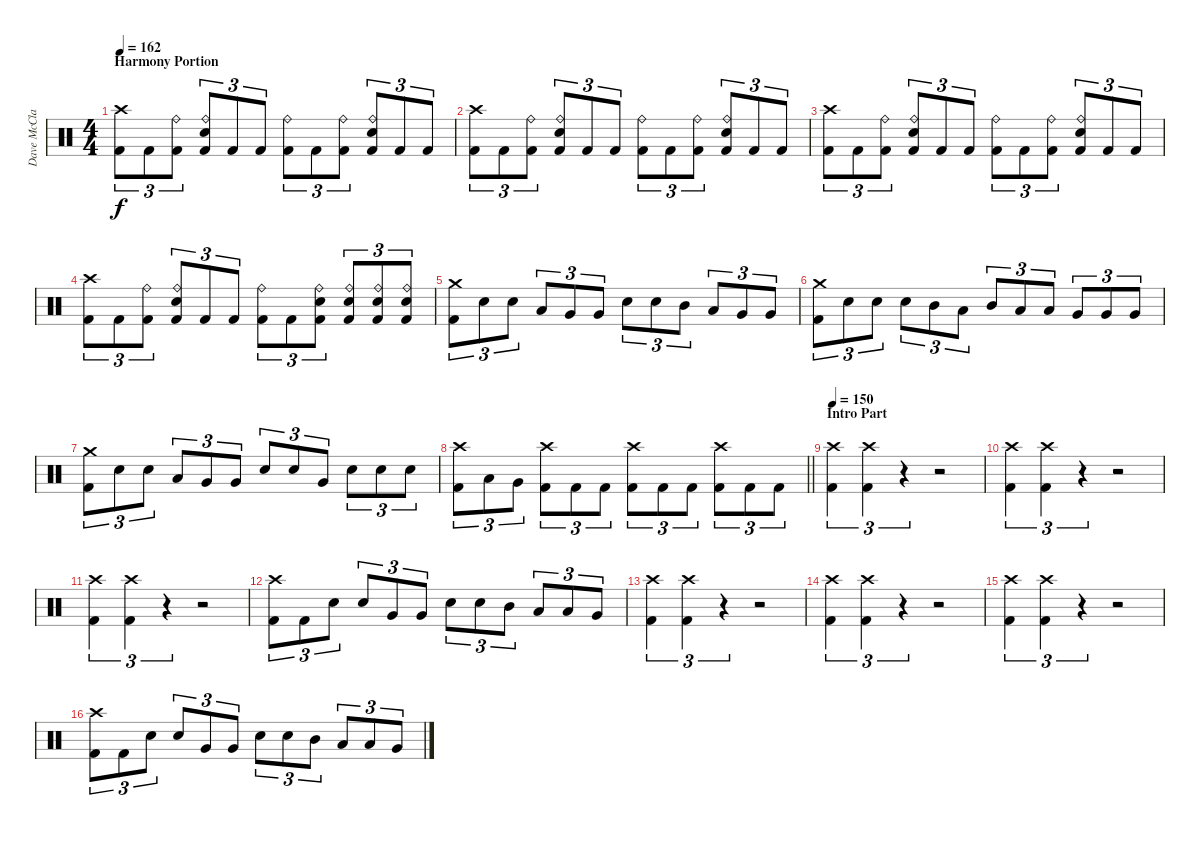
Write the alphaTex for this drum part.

\track ("Dave McClain" "Dave McCla") {instrument percussion}
\staff {score}
\articulation defaults
\ts (4 4)
\section ("" "Harmony Portion")
\tempo 162
\clef neutral
\ks c
("Crash high (hit)" "Kick (hit) 2").8{tu (3 2) dy f} "Kick (hit) 2".8{tu (3 2)} ("Ride (bell)" "Kick (hit) 2").8{tu (3 2)} ("Ride (bell)" "Snare (hit) 2" "Kick (hit) 2").8{tu (3 2)} "Kick (hit) 2".8{tu (3 2)} "Kick (hit) 2".8{tu (3 2)} ("Ride (bell)" "Kick (hit) 2").8{tu (3 2)} "Kick (hit) 2".8{tu (3 2)} ("Ride (bell)" "Kick (hit) 2").8{tu (3 2)} ("Ride (bell)" "Snare (hit) 2" "Kick (hit) 2").8{tu (3 2)} "Kick (hit) 2".8{tu (3 2)} "Kick (hit) 2".8{tu (3 2)} |
("Crash high (hit)" "Kick (hit) 2").8{tu (3 2)} "Kick (hit) 2".8{tu (3 2)} ("Ride (bell)" "Kick (hit) 2").8{tu (3 2)} ("Ride (bell)" "Snare (hit) 2" "Kick (hit) 2").8{tu (3 2)} "Kick (hit) 2".8{tu (3 2)} "Kick (hit) 2".8{tu (3 2)} ("Ride (bell)" "Kick (hit) 2").8{tu (3 2)} "Kick (hit) 2".8{tu (3 2)} ("Ride (bell)" "Kick (hit) 2").8{tu (3 2)} ("Ride (bell)" "Snare (hit) 2" "Kick (hit) 2").8{tu (3 2)} "Kick (hit) 2".8{tu (3 2)} "Kick (hit) 2".8{tu (3 2)} |
("Crash high (hit)" "Kick (hit) 2").8{tu (3 2)} "Kick (hit) 2".8{tu (3 2)} ("Ride (bell)" "Kick (hit) 2").8{tu (3 2)} ("Ride (bell)" "Snare (hit) 2" "Kick (hit) 2").8{tu (3 2)} "Kick (hit) 2".8{tu (3 2)} "Kick (hit) 2".8{tu (3 2)} ("Ride (bell)" "Kick (hit) 2").8{tu (3 2)} "Kick (hit) 2".8{tu (3 2)} ("Ride (bell)" "Kick (hit) 2").8{tu (3 2)} ("Ride (bell)" "Snare (hit) 2" "Kick (hit) 2").8{tu (3 2)} "Kick (hit) 2".8{tu (3 2)} "Kick (hit) 2".8{tu (3 2)} |
("Crash high (hit)" "Kick (hit) 2").8{tu (3 2)} "Kick (hit) 2".8{tu (3 2)} ("Ride (bell)" "Kick (hit) 2").8{tu (3 2)} ("Ride (bell)" "Snare (hit) 2" "Kick (hit) 2").8{tu (3 2)} "Kick (hit) 2".8{tu (3 2)} "Kick (hit) 2".8{tu (3 2)} ("Ride (bell)" "Kick (hit) 2").8{tu (3 2)} "Kick (hit) 2".8{tu (3 2)} ("Ride (bell)" "Snare (hit) 2" "Kick (hit) 2").8{tu (3 2)} ("Ride (bell)" "Snare (hit) 2" "Kick (hit) 2").8{tu (3 2)} ("Ride (bell)" "Snare (hit) 2" "Kick (hit) 2").8{tu (3 2)} ("Ride (bell)" "Snare (hit) 2" "Kick (hit) 2").8{tu (3 2)} |
("Crash medium (hit)" "Kick (hit) 2").8{tu (3 2)} "Snare (hit) 2".8{tu (3 2)} "Snare (hit) 2".8{tu (3 2)} "Low Tom (hit)".8{tu (3 2)} "Very Low Tom (hit)".8{tu (3 2)} "Very Low Tom (hit)".8{tu (3 2)} "Snare (hit) 2".8{tu (3 2)} "Snare (hit) 2".8{tu (3 2)} "Mid Tom (hit)".8{tu (3 2)} "Low Tom (hit)".8{tu (3 2)} "Very Low Tom (hit)".8{tu (3 2)} "Very Low Tom (hit)".8{tu (3 2)} |
("Crash medium (hit)" "Kick (hit) 2").8{tu (3 2)} "Snare (hit) 2".8{tu (3 2)} "Snare (hit) 2".8{tu (3 2)} "Snare (hit) 2".8{tu (3 2)} "Mid Tom (hit)".8{tu (3 2)} "Low Tom (hit)".8{tu (3 2)} "Mid Tom (hit)".8{tu (3 2)} "Low Tom (hit)".8{tu (3 2)} "Low Tom (hit)".8{tu (3 2)} "Very Low Tom (hit)".8{tu (3 2)} "Very Low Tom (hit)".8{tu (3 2)} "Very Low Tom (hit)".8{tu (3 2)} |
("Crash medium (hit)" "Kick (hit) 2").8{tu (3 2)} "Snare (hit) 2".8{tu (3 2)} "Snare (hit) 2".8{tu (3 2)} "Low Tom (hit)".8{tu (3 2)} "Very Low Tom (hit)".8{tu (3 2)} "Very Low Tom (hit)".8{tu (3 2)} "Snare (hit) 2".8{tu (3 2)} "Snare (hit) 2".8{tu (3 2)} "Very Low Tom (hit)".8{tu (3 2)} "Snare (hit) 2".8{tu (3 2)} "Snare (hit) 2".8{tu (3 2)} "Snare (hit) 2".8{tu (3 2)} |
\barLineRight lightlight
("Crash high (hit)" "Kick (hit) 2").8{tu (3 2)} "Low Tom (hit)".8{tu (3 2)} "Very Low Tom (hit)".8{tu (3 2)} ("Crash high (hit)" "Kick (hit) 2").8{tu (3 2)} "Kick (hit) 2".8{tu (3 2)} "Kick (hit) 2".8{tu (3 2)} ("Crash high (hit)" "Kick (hit) 2").8{tu (3 2)} "Kick (hit) 2".8{tu (3 2)} "Kick (hit) 2".8{tu (3 2)} ("Crash high (hit)" "Kick (hit) 2").8{tu (3 2)} "Kick (hit) 2".8{tu (3 2)} "Kick (hit) 2".8{tu (3 2)} |
\section ("" "Intro Part")
\tempo 150
("Crash high (hit)" "Kick (hit) 2").4{tu (3 2)} ("Crash high (hit)" "Kick (hit) 2").4{tu (3 2)} r.4{tu (3 2)} r.2 |
("Crash high (hit)" "Kick (hit) 2").4{tu (3 2)} ("Crash high (hit)" "Kick (hit) 2").4{tu (3 2)} r.4{tu (3 2)} r.2 |
("Crash high (hit)" "Kick (hit) 2").4{tu (3 2)} ("Crash high (hit)" "Kick (hit) 2").4{tu (3 2)} r.4{tu (3 2)} r.2 |
("Crash high (hit)" "Kick (hit) 2").8{tu (3 2)} "Kick (hit) 2".8{tu (3 2)} "Snare (hit) 2".8{tu (3 2)} "Snare (hit) 2".8{tu (3 2)} "Very Low Tom (hit)".8{tu (3 2)} "Very Low Tom (hit)".8{tu (3 2)} "Snare (hit) 2".8{tu (3 2)} "Snare (hit) 2".8{tu (3 2)} "Mid Tom (hit)".8{tu (3 2)} "Low Tom (hit)".8{tu (3 2)} "Low Tom (hit)".8{tu (3 2)} "Very Low Tom (hit)".8{tu (3 2)} |
("Crash high (hit)" "Kick (hit) 2").4{tu (3 2)} ("Crash high (hit)" "Kick (hit) 2").4{tu (3 2)} r.4{tu (3 2)} r.2 |
("Crash high (hit)" "Kick (hit) 2").4{tu (3 2)} ("Crash high (hit)" "Kick (hit) 2").4{tu (3 2)} r.4{tu (3 2)} r.2 |
("Crash high (hit)" "Kick (hit) 2").4{tu (3 2)} ("Crash high (hit)" "Kick (hit) 2").4{tu (3 2)} r.4{tu (3 2)} r.2 |
("Crash high (hit)" "Kick (hit) 2").8{tu (3 2)} "Kick (hit) 2".8{tu (3 2)} "Snare (hit) 2".8{tu (3 2)} "Snare (hit) 2".8{tu (3 2)} "Very Low Tom (hit)".8{tu (3 2)} "Very Low Tom (hit)".8{tu (3 2)} "Snare (hit) 2".8{tu (3 2)} "Snare (hit) 2".8{tu (3 2)} "Mid Tom (hit)".8{tu (3 2)} "Low Tom (hit)".8{tu (3 2)} "Low Tom (hit)".8{tu (3 2)} "Very Low Tom (hit)".8{tu (3 2)}
